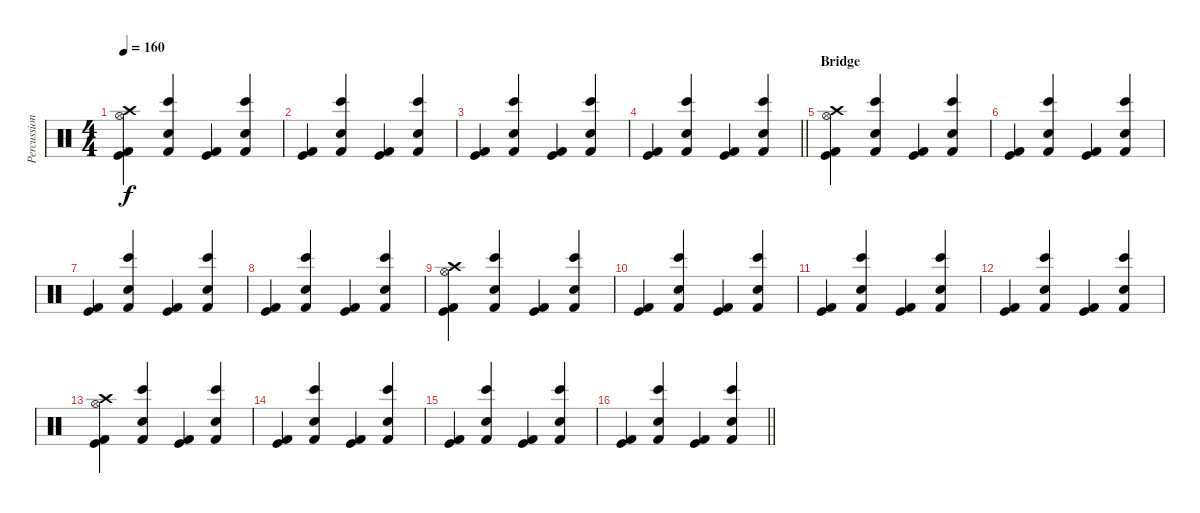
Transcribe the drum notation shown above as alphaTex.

\track ("Percussion" "Percussion") {instrument percussion}
\staff {score}
\articulation defaults
\ts (4 4)
\tempo 160
\clef neutral
\ks c
("Crash high (hit)" "Hi-Hat (open)" "Kick (hit)" "Kick (hit) 2").4{dy f} ("Bongo High (hit)" "Hand Clap (hit)" "Kick (hit) 2").4 ("Kick (hit)" "Kick (hit) 2").4 ("Bongo High (hit)" "Hand Clap (hit)" "Kick (hit) 2").4 |
("Kick (hit)" "Kick (hit) 2").4 ("Bongo High (hit)" "Hand Clap (hit)" "Kick (hit) 2").4 ("Kick (hit)" "Kick (hit) 2").4 ("Bongo High (hit)" "Hand Clap (hit)" "Kick (hit) 2").4 |
("Kick (hit)" "Kick (hit) 2").4 ("Bongo High (hit)" "Hand Clap (hit)" "Kick (hit) 2").4 ("Kick (hit)" "Kick (hit) 2").4 ("Bongo High (hit)" "Hand Clap (hit)" "Kick (hit) 2").4 |
\barLineRight lightlight
("Kick (hit)" "Kick (hit) 2").4 ("Bongo High (hit)" "Hand Clap (hit)" "Kick (hit) 2").4 ("Kick (hit)" "Kick (hit) 2").4 ("Bongo High (hit)" "Hand Clap (hit)" "Kick (hit) 2").4 |
\section ("" "Bridge")
("Crash high (hit)" "Hi-Hat (open)" "Kick (hit)" "Kick (hit) 2").4 ("Bongo High (hit)" "Hand Clap (hit)" "Kick (hit) 2").4 ("Kick (hit)" "Kick (hit) 2").4 ("Bongo High (hit)" "Hand Clap (hit)" "Kick (hit) 2").4 |
("Kick (hit)" "Kick (hit) 2").4 ("Bongo High (hit)" "Hand Clap (hit)" "Kick (hit) 2").4 ("Kick (hit)" "Kick (hit) 2").4 ("Bongo High (hit)" "Hand Clap (hit)" "Kick (hit) 2").4 |
("Kick (hit)" "Kick (hit) 2").4 ("Bongo High (hit)" "Hand Clap (hit)" "Kick (hit) 2").4 ("Kick (hit)" "Kick (hit) 2").4 ("Bongo High (hit)" "Hand Clap (hit)" "Kick (hit) 2").4 |
("Kick (hit)" "Kick (hit) 2").4 ("Bongo High (hit)" "Hand Clap (hit)" "Kick (hit) 2").4 ("Kick (hit)" "Kick (hit) 2").4 ("Bongo High (hit)" "Hand Clap (hit)" "Kick (hit) 2").4 |
("Crash high (hit)" "Hi-Hat (open)" "Kick (hit)" "Kick (hit) 2").4 ("Bongo High (hit)" "Hand Clap (hit)" "Kick (hit) 2").4 ("Kick (hit)" "Kick (hit) 2").4 ("Bongo High (hit)" "Hand Clap (hit)" "Kick (hit) 2").4 |
("Kick (hit)" "Kick (hit) 2").4 ("Bongo High (hit)" "Hand Clap (hit)" "Kick (hit) 2").4 ("Kick (hit)" "Kick (hit) 2").4 ("Bongo High (hit)" "Hand Clap (hit)" "Kick (hit) 2").4 |
("Kick (hit)" "Kick (hit) 2").4 ("Bongo High (hit)" "Hand Clap (hit)" "Kick (hit) 2").4 ("Kick (hit)" "Kick (hit) 2").4 ("Bongo High (hit)" "Hand Clap (hit)" "Kick (hit) 2").4 |
("Kick (hit)" "Kick (hit) 2").4 ("Bongo High (hit)" "Hand Clap (hit)" "Kick (hit) 2").4 ("Kick (hit)" "Kick (hit) 2").4 ("Bongo High (hit)" "Hand Clap (hit)" "Kick (hit) 2").4 |
("Crash high (hit)" "Hi-Hat (open)" "Kick (hit)" "Kick (hit) 2").4 ("Bongo High (hit)" "Hand Clap (hit)" "Kick (hit) 2").4 ("Kick (hit)" "Kick (hit) 2").4 ("Bongo High (hit)" "Hand Clap (hit)" "Kick (hit) 2").4 |
("Kick (hit)" "Kick (hit) 2").4 ("Bongo High (hit)" "Hand Clap (hit)" "Kick (hit) 2").4 ("Kick (hit)" "Kick (hit) 2").4 ("Bongo High (hit)" "Hand Clap (hit)" "Kick (hit) 2").4 |
("Kick (hit)" "Kick (hit) 2").4 ("Bongo High (hit)" "Hand Clap (hit)" "Kick (hit) 2").4 ("Kick (hit)" "Kick (hit) 2").4 ("Bongo High (hit)" "Hand Clap (hit)" "Kick (hit) 2").4 |
\barLineRight lightlight
("Kick (hit)" "Kick (hit) 2").4 ("Bongo High (hit)" "Hand Clap (hit)" "Kick (hit) 2").4 ("Kick (hit)" "Kick (hit) 2").4 ("Bongo High (hit)" "Hand Clap (hit)" "Kick (hit) 2").4
